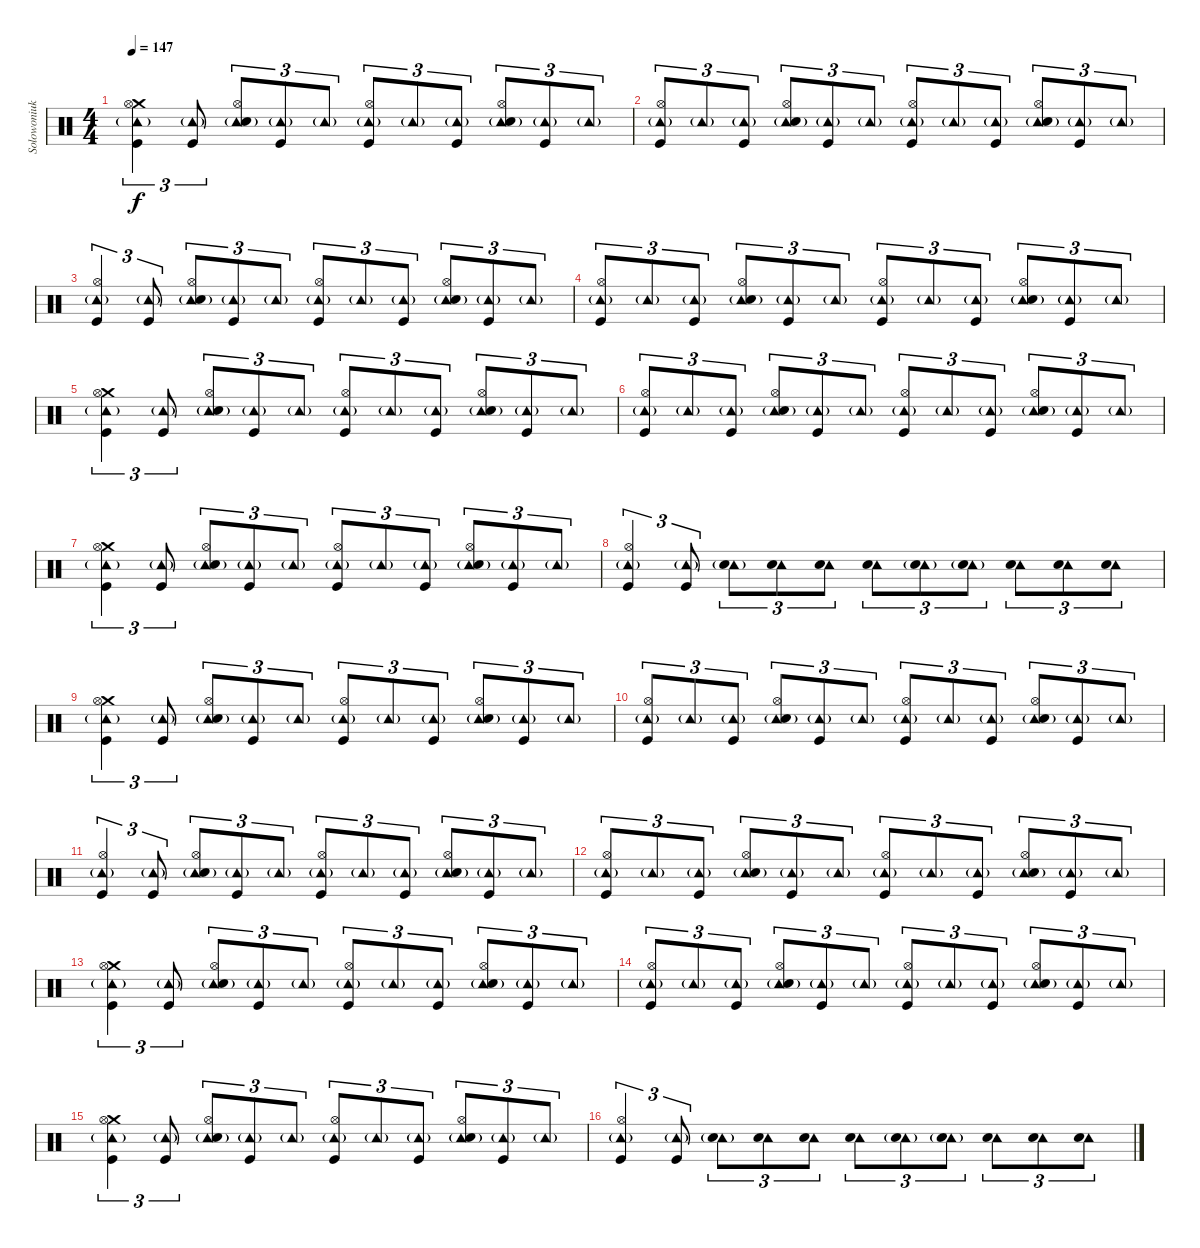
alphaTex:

\track ("Solowoniuk " "Solowoniuk") {instrument percussion}
\staff {score}
\articulation defaults
\ts (4 4)
\tempo 147
\clef neutral
\ks c
("Crash medium (hit)" "Tambourine (hit)"{g} "Hi-Hat (open)" "Kick (hit)").4{tu (3 2) dy f} ("Tambourine (hit)"{g} "Kick (hit)").8{tu (3 2)} ("Tambourine (hit)"{g} "Hi-Hat (open)" "Snare (hit) 2").8{tu (3 2)} ("Tambourine (hit)"{g} "Kick (hit)").8{tu (3 2)} "Tambourine (hit)"{g}.8{tu (3 2)} ("Tambourine (hit)"{g} "Hi-Hat (open)" "Kick (hit)").8{tu (3 2)} "Tambourine (hit)"{g}.8{tu (3 2)} ("Tambourine (hit)"{g} "Kick (hit)").8{tu (3 2)} ("Tambourine (hit)"{g} "Hi-Hat (open)" "Snare (hit) 2").8{tu (3 2)} ("Tambourine (hit)"{g} "Kick (hit)").8{tu (3 2)} "Tambourine (hit)"{g}.8{tu (3 2)} |
("Tambourine (hit)"{g} "Hi-Hat (open)" "Kick (hit)").8{tu (3 2)} "Tambourine (hit)"{g}.8{tu (3 2)} ("Tambourine (hit)"{g} "Kick (hit)").8{tu (3 2)} ("Tambourine (hit)"{g} "Hi-Hat (open)" "Snare (hit) 2").8{tu (3 2)} ("Tambourine (hit)"{g} "Kick (hit)").8{tu (3 2)} "Tambourine (hit)"{g}.8{tu (3 2)} ("Tambourine (hit)"{g} "Hi-Hat (open)" "Kick (hit)").8{tu (3 2)} "Tambourine (hit)"{g}.8{tu (3 2)} ("Tambourine (hit)"{g} "Kick (hit)").8{tu (3 2)} ("Tambourine (hit)"{g} "Hi-Hat (open)" "Snare (hit) 2").8{tu (3 2)} ("Tambourine (hit)"{g} "Kick (hit)").8{tu (3 2)} "Tambourine (hit)"{g}.8{tu (3 2)} |
("Tambourine (hit)"{g} "Hi-Hat (open)" "Kick (hit)").4{tu (3 2)} ("Tambourine (hit)"{g} "Kick (hit)").8{tu (3 2)} ("Tambourine (hit)"{g} "Hi-Hat (open)" "Snare (hit) 2").8{tu (3 2)} ("Tambourine (hit)"{g} "Kick (hit)").8{tu (3 2)} "Tambourine (hit)"{g}.8{tu (3 2)} ("Tambourine (hit)"{g} "Hi-Hat (open)" "Kick (hit)").8{tu (3 2)} "Tambourine (hit)"{g}.8{tu (3 2)} ("Tambourine (hit)"{g} "Kick (hit)").8{tu (3 2)} ("Tambourine (hit)"{g} "Hi-Hat (open)" "Snare (hit) 2").8{tu (3 2)} ("Tambourine (hit)"{g} "Kick (hit)").8{tu (3 2)} "Tambourine (hit)"{g}.8{tu (3 2)} |
("Tambourine (hit)"{g} "Hi-Hat (open)" "Kick (hit)").8{tu (3 2)} "Tambourine (hit)"{g}.8{tu (3 2)} ("Tambourine (hit)"{g} "Kick (hit)").8{tu (3 2)} ("Tambourine (hit)"{g} "Hi-Hat (open)" "Snare (hit) 2").8{tu (3 2)} ("Tambourine (hit)"{g} "Kick (hit)").8{tu (3 2)} "Tambourine (hit)"{g}.8{tu (3 2)} ("Tambourine (hit)"{g} "Hi-Hat (open)" "Kick (hit)").8{tu (3 2)} "Tambourine (hit)"{g}.8{tu (3 2)} ("Tambourine (hit)"{g} "Kick (hit)").8{tu (3 2)} ("Tambourine (hit)"{g} "Hi-Hat (open)" "Snare (hit) 2").8{tu (3 2)} ("Tambourine (hit)"{g} "Kick (hit)").8{tu (3 2)} "Tambourine (hit)"{g}.8{tu (3 2)} |
("Crash medium (hit)" "Tambourine (hit)"{g} "Hi-Hat (open)" "Kick (hit)").4{tu (3 2)} ("Tambourine (hit)"{g} "Kick (hit)").8{tu (3 2)} ("Tambourine (hit)"{g} "Hi-Hat (open)" "Snare (hit) 2").8{tu (3 2)} ("Tambourine (hit)"{g} "Kick (hit)").8{tu (3 2)} "Tambourine (hit)"{g}.8{tu (3 2)} ("Tambourine (hit)"{g} "Hi-Hat (open)" "Kick (hit)").8{tu (3 2)} "Tambourine (hit)"{g}.8{tu (3 2)} ("Tambourine (hit)"{g} "Kick (hit)").8{tu (3 2)} ("Tambourine (hit)"{g} "Hi-Hat (open)" "Snare (hit) 2").8{tu (3 2)} ("Tambourine (hit)"{g} "Kick (hit)").8{tu (3 2)} "Tambourine (hit)"{g}.8{tu (3 2)} |
("Tambourine (hit)"{g} "Hi-Hat (open)" "Kick (hit)").8{tu (3 2)} "Tambourine (hit)"{g}.8{tu (3 2)} ("Tambourine (hit)"{g} "Kick (hit)").8{tu (3 2)} ("Tambourine (hit)"{g} "Hi-Hat (open)" "Snare (hit) 2").8{tu (3 2)} ("Tambourine (hit)"{g} "Kick (hit)").8{tu (3 2)} "Tambourine (hit)"{g}.8{tu (3 2)} ("Tambourine (hit)"{g} "Hi-Hat (open)" "Kick (hit)").8{tu (3 2)} "Tambourine (hit)"{g}.8{tu (3 2)} ("Tambourine (hit)"{g} "Kick (hit)").8{tu (3 2)} ("Tambourine (hit)"{g} "Hi-Hat (open)" "Snare (hit) 2").8{tu (3 2)} ("Tambourine (hit)"{g} "Kick (hit)").8{tu (3 2)} "Tambourine (hit)"{g}.8{tu (3 2)} |
("Crash medium (hit)" "Tambourine (hit)"{g} "Hi-Hat (open)" "Kick (hit)").4{tu (3 2)} ("Tambourine (hit)"{g} "Kick (hit)").8{tu (3 2)} ("Tambourine (hit)"{g} "Hi-Hat (open)" "Snare (hit) 2").8{tu (3 2)} ("Tambourine (hit)"{g} "Kick (hit)").8{tu (3 2)} "Tambourine (hit)"{g}.8{tu (3 2)} ("Tambourine (hit)"{g} "Hi-Hat (open)" "Kick (hit)").8{tu (3 2)} "Tambourine (hit)"{g}.8{tu (3 2)} ("Tambourine (hit)"{g} "Kick (hit)").8{tu (3 2)} ("Tambourine (hit)"{g} "Hi-Hat (open)" "Snare (hit) 2").8{tu (3 2)} ("Tambourine (hit)"{g} "Kick (hit)").8{tu (3 2)} "Tambourine (hit)"{g}.8{tu (3 2)} |
("Tambourine (hit)"{g} "Hi-Hat (open)" "Kick (hit)").4{tu (3 2)} ("Tambourine (hit)"{g} "Kick (hit)").8{tu (3 2)} ("Tambourine (hit)"{g} "Snare (hit) 2").8{tu (3 2)} ("Tambourine (hit)" "Snare (hit) 2").8{tu (3 2)} ("Tambourine (hit)" "Snare (hit) 2").8{tu (3 2)} ("Tambourine (hit)" "Snare (hit) 2").8{tu (3 2)} ("Tambourine (hit)" "Snare (hit) 2"{g}).8{tu (3 2)} ("Tambourine (hit)" "Snare (hit) 2"{g}).8{tu (3 2)} ("Tambourine (hit)" "Snare (hit) 2").8{tu (3 2)} ("Tambourine (hit)" "Snare (hit) 2").8{tu (3 2)} ("Tambourine (hit)" "Snare (hit) 2").8{tu (3 2)} |
("Crash medium (hit)" "Tambourine (hit)"{g} "Hi-Hat (open)" "Kick (hit)").4{tu (3 2)} ("Tambourine (hit)"{g} "Kick (hit)").8{tu (3 2)} ("Tambourine (hit)"{g} "Hi-Hat (open)" "Snare (hit) 2").8{tu (3 2)} ("Tambourine (hit)"{g} "Kick (hit)").8{tu (3 2)} "Tambourine (hit)"{g}.8{tu (3 2)} ("Tambourine (hit)"{g} "Hi-Hat (open)" "Kick (hit)").8{tu (3 2)} "Tambourine (hit)"{g}.8{tu (3 2)} ("Tambourine (hit)"{g} "Kick (hit)").8{tu (3 2)} ("Tambourine (hit)"{g} "Hi-Hat (open)" "Snare (hit) 2").8{tu (3 2)} ("Tambourine (hit)"{g} "Kick (hit)").8{tu (3 2)} "Tambourine (hit)"{g}.8{tu (3 2)} |
("Tambourine (hit)"{g} "Hi-Hat (open)" "Kick (hit)").8{tu (3 2)} "Tambourine (hit)"{g}.8{tu (3 2)} ("Tambourine (hit)"{g} "Kick (hit)").8{tu (3 2)} ("Tambourine (hit)"{g} "Hi-Hat (open)" "Snare (hit) 2").8{tu (3 2)} ("Tambourine (hit)"{g} "Kick (hit)").8{tu (3 2)} "Tambourine (hit)"{g}.8{tu (3 2)} ("Tambourine (hit)"{g} "Hi-Hat (open)" "Kick (hit)").8{tu (3 2)} "Tambourine (hit)"{g}.8{tu (3 2)} ("Tambourine (hit)"{g} "Kick (hit)").8{tu (3 2)} ("Tambourine (hit)"{g} "Hi-Hat (open)" "Snare (hit) 2").8{tu (3 2)} ("Tambourine (hit)"{g} "Kick (hit)").8{tu (3 2)} "Tambourine (hit)"{g}.8{tu (3 2)} |
("Tambourine (hit)"{g} "Hi-Hat (open)" "Kick (hit)").4{tu (3 2)} ("Tambourine (hit)"{g} "Kick (hit)").8{tu (3 2)} ("Tambourine (hit)"{g} "Hi-Hat (open)" "Snare (hit) 2").8{tu (3 2)} ("Tambourine (hit)"{g} "Kick (hit)").8{tu (3 2)} "Tambourine (hit)"{g}.8{tu (3 2)} ("Tambourine (hit)"{g} "Hi-Hat (open)" "Kick (hit)").8{tu (3 2)} "Tambourine (hit)"{g}.8{tu (3 2)} ("Tambourine (hit)"{g} "Kick (hit)").8{tu (3 2)} ("Tambourine (hit)"{g} "Hi-Hat (open)" "Snare (hit) 2").8{tu (3 2)} ("Tambourine (hit)"{g} "Kick (hit)").8{tu (3 2)} "Tambourine (hit)"{g}.8{tu (3 2)} |
("Tambourine (hit)"{g} "Hi-Hat (open)" "Kick (hit)").8{tu (3 2)} "Tambourine (hit)"{g}.8{tu (3 2)} ("Tambourine (hit)"{g} "Kick (hit)").8{tu (3 2)} ("Tambourine (hit)"{g} "Hi-Hat (open)" "Snare (hit) 2").8{tu (3 2)} ("Tambourine (hit)"{g} "Kick (hit)").8{tu (3 2)} "Tambourine (hit)"{g}.8{tu (3 2)} ("Tambourine (hit)"{g} "Hi-Hat (open)" "Kick (hit)").8{tu (3 2)} "Tambourine (hit)"{g}.8{tu (3 2)} ("Tambourine (hit)"{g} "Kick (hit)").8{tu (3 2)} ("Tambourine (hit)"{g} "Hi-Hat (open)" "Snare (hit) 2").8{tu (3 2)} ("Tambourine (hit)"{g} "Kick (hit)").8{tu (3 2)} "Tambourine (hit)"{g}.8{tu (3 2)} |
("Crash medium (hit)" "Tambourine (hit)"{g} "Hi-Hat (open)" "Kick (hit)").4{tu (3 2)} ("Tambourine (hit)"{g} "Kick (hit)").8{tu (3 2)} ("Tambourine (hit)"{g} "Hi-Hat (open)" "Snare (hit) 2").8{tu (3 2)} ("Tambourine (hit)"{g} "Kick (hit)").8{tu (3 2)} "Tambourine (hit)"{g}.8{tu (3 2)} ("Tambourine (hit)"{g} "Hi-Hat (open)" "Kick (hit)").8{tu (3 2)} "Tambourine (hit)"{g}.8{tu (3 2)} ("Tambourine (hit)"{g} "Kick (hit)").8{tu (3 2)} ("Tambourine (hit)"{g} "Hi-Hat (open)" "Snare (hit) 2").8{tu (3 2)} ("Tambourine (hit)"{g} "Kick (hit)").8{tu (3 2)} "Tambourine (hit)"{g}.8{tu (3 2)} |
("Tambourine (hit)"{g} "Hi-Hat (open)" "Kick (hit)").8{tu (3 2)} "Tambourine (hit)"{g}.8{tu (3 2)} ("Tambourine (hit)"{g} "Kick (hit)").8{tu (3 2)} ("Tambourine (hit)"{g} "Hi-Hat (open)" "Snare (hit) 2").8{tu (3 2)} ("Tambourine (hit)"{g} "Kick (hit)").8{tu (3 2)} "Tambourine (hit)"{g}.8{tu (3 2)} ("Tambourine (hit)"{g} "Hi-Hat (open)" "Kick (hit)").8{tu (3 2)} "Tambourine (hit)"{g}.8{tu (3 2)} ("Tambourine (hit)"{g} "Kick (hit)").8{tu (3 2)} ("Tambourine (hit)"{g} "Hi-Hat (open)" "Snare (hit) 2").8{tu (3 2)} ("Tambourine (hit)"{g} "Kick (hit)").8{tu (3 2)} "Tambourine (hit)"{g}.8{tu (3 2)} |
("Crash medium (hit)" "Tambourine (hit)"{g} "Hi-Hat (open)" "Kick (hit)").4{tu (3 2)} ("Tambourine (hit)"{g} "Kick (hit)").8{tu (3 2)} ("Tambourine (hit)"{g} "Hi-Hat (open)" "Snare (hit) 2").8{tu (3 2)} ("Tambourine (hit)"{g} "Kick (hit)").8{tu (3 2)} "Tambourine (hit)"{g}.8{tu (3 2)} ("Tambourine (hit)"{g} "Hi-Hat (open)" "Kick (hit)").8{tu (3 2)} "Tambourine (hit)"{g}.8{tu (3 2)} ("Tambourine (hit)"{g} "Kick (hit)").8{tu (3 2)} ("Tambourine (hit)"{g} "Hi-Hat (open)" "Snare (hit) 2").8{tu (3 2)} ("Tambourine (hit)"{g} "Kick (hit)").8{tu (3 2)} "Tambourine (hit)"{g}.8{tu (3 2)} |
("Tambourine (hit)"{g} "Hi-Hat (open)" "Kick (hit)").4{tu (3 2)} ("Tambourine (hit)"{g} "Kick (hit)").8{tu (3 2)} ("Tambourine (hit)"{g} "Snare (hit) 2").8{tu (3 2)} ("Tambourine (hit)" "Snare (hit) 2").8{tu (3 2)} ("Tambourine (hit)" "Snare (hit) 2").8{tu (3 2)} ("Tambourine (hit)" "Snare (hit) 2").8{tu (3 2)} ("Tambourine (hit)" "Snare (hit) 2"{g}).8{tu (3 2)} ("Tambourine (hit)" "Snare (hit) 2"{g}).8{tu (3 2)} ("Tambourine (hit)" "Snare (hit) 2").8{tu (3 2)} ("Tambourine (hit)" "Snare (hit) 2").8{tu (3 2)} ("Tambourine (hit)" "Snare (hit) 2").8{tu (3 2)}
